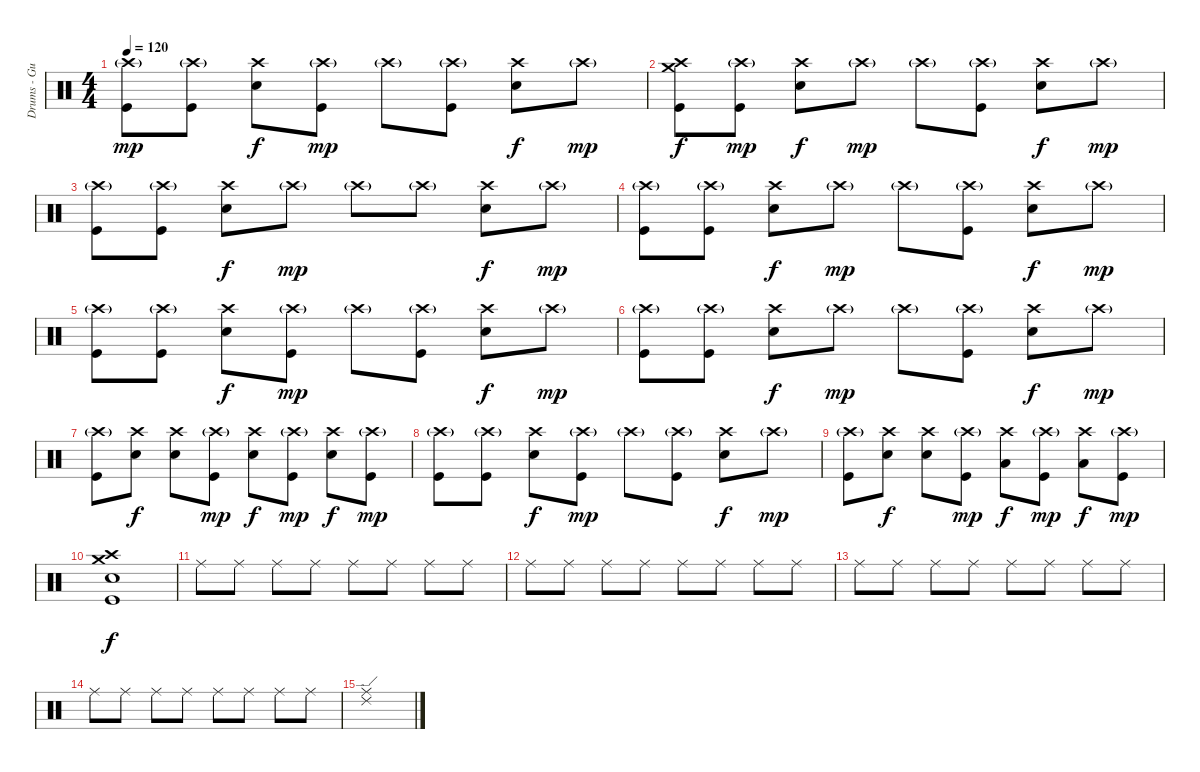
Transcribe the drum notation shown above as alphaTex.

\track ("Drums - Gustav" "Drums - Gu") {instrument percussion}
\staff {score}
\articulation defaults
\ts (4 4)
\tempo 120
\clef neutral
\ks c
("Kick (hit)" "Crash high (hit)"{g}).8{dy mp} ("Kick (hit)" "Crash high (hit)"{g}).8 ("Snare (hit) 2" "Crash high (hit)").8{dy f} ("Kick (hit)" "Crash high (hit)"{g}).8{dy mp} "Crash high (hit)"{g}.8 ("Kick (hit)" "Crash high (hit)"{g}).8 ("Snare (hit) 2" "Crash high (hit)").8{dy f} "Crash high (hit)"{g}.8{dy mp} |
("Kick (hit)" "Crash high (hit)" "Crash medium (hit)").8{dy f} ("Kick (hit)" "Crash high (hit)"{g}).8{dy mp} ("Snare (hit) 2" "Crash high (hit)").8{dy f} "Crash high (hit)"{g}.8{dy mp} "Crash high (hit)"{g}.8 ("Kick (hit)" "Crash high (hit)"{g}).8 ("Snare (hit) 2" "Crash high (hit)").8{dy f} "Crash high (hit)"{g}.8{dy mp} |
("Kick (hit)" "Crash high (hit)"{g}).8 ("Kick (hit)" "Crash high (hit)"{g}).8 ("Snare (hit) 2" "Crash high (hit)").8{dy f} "Crash high (hit)"{g}.8{dy mp} "Crash high (hit)"{g}.8 "Crash high (hit)"{g}.8 ("Snare (hit) 2" "Crash high (hit)").8{dy f} "Crash high (hit)"{g}.8{dy mp} |
("Kick (hit)" "Crash high (hit)"{g}).8 ("Kick (hit)" "Crash high (hit)"{g}).8 ("Snare (hit) 2" "Crash high (hit)").8{dy f} "Crash high (hit)"{g}.8{dy mp} "Crash high (hit)"{g}.8 ("Kick (hit)" "Crash high (hit)"{g}).8 ("Snare (hit) 2" "Crash high (hit)").8{dy f} "Crash high (hit)"{g}.8{dy mp} |
("Kick (hit)" "Crash high (hit)"{g}).8 ("Kick (hit)" "Crash high (hit)"{g}).8 ("Snare (hit) 2" "Crash high (hit)").8{dy f} ("Kick (hit)" "Crash high (hit)"{g}).8{dy mp} "Crash high (hit)"{g}.8 ("Kick (hit)" "Crash high (hit)"{g}).8 ("Snare (hit) 2" "Crash high (hit)").8{dy f} "Crash high (hit)"{g}.8{dy mp} |
("Kick (hit)" "Crash high (hit)"{g}).8 ("Kick (hit)" "Crash high (hit)"{g}).8 ("Snare (hit) 2" "Crash high (hit)").8{dy f} "Crash high (hit)"{g}.8{dy mp} "Crash high (hit)"{g}.8 ("Kick (hit)" "Crash high (hit)"{g}).8 ("Snare (hit) 2" "Crash high (hit)").8{dy f} "Crash high (hit)"{g}.8{dy mp} |
("Kick (hit)" "Crash high (hit)"{g}).8 ("Crash high (hit)" "Snare (hit) 2").8{dy f} ("Crash high (hit)" "Snare (hit) 2").8 ("Kick (hit)" "Crash high (hit)"{g}).8{dy mp} ("Crash high (hit)" "Snare (hit) 2").8{dy f} ("Kick (hit)" "Crash high (hit)"{g}).8{dy mp} ("Crash high (hit)" "Snare (hit) 2").8{dy f} ("Kick (hit)" "Crash high (hit)"{g}).8{dy mp} |
("Kick (hit)" "Crash high (hit)"{g}).8 ("Kick (hit)" "Crash high (hit)"{g}).8 ("Snare (hit) 2" "Crash high (hit)").8{dy f} ("Kick (hit)" "Crash high (hit)"{g}).8{dy mp} "Crash high (hit)"{g}.8 ("Kick (hit)" "Crash high (hit)"{g}).8 ("Snare (hit) 2" "Crash high (hit)").8{dy f} "Crash high (hit)"{g}.8{dy mp} |
("Kick (hit)" "Crash high (hit)"{g}).8 ("Crash high (hit)" "Snare (hit) 2").8{dy f} ("Crash high (hit)" "Snare (hit) 2").8 ("Kick (hit)" "Crash high (hit)"{g}).8{dy mp} ("Crash high (hit)" "Low Tom (hit)").8{dy f} ("Kick (hit)" "Crash high (hit)"{g}).8{dy mp} ("Crash high (hit)" "Low Floor Tom (hit)").8{dy f} ("Kick (hit)" "Crash high (hit)"{g}).8{dy mp} |
("Kick (hit)" "Snare (hit) 2" "Crash high (hit)" "Crash medium (hit)").1{dy f volume 0} |
"Ride (middle)".8{volume 5} "Ride (middle)".8 "Ride (middle)".8 "Ride (middle)".8 "Ride (middle)".8 "Ride (middle)".8 "Ride (middle)".8 "Ride (middle)".8 |
"Ride (middle)".8 "Ride (middle)".8 "Ride (middle)".8 "Ride (middle)".8 "Ride (middle)".8 "Ride (middle)".8 "Ride (middle)".8 "Ride (middle)".8 |
"Ride (middle)".8 "Ride (middle)".8 "Ride (middle)".8 "Ride (middle)".8 "Ride (middle)".8 "Ride (middle)".8 "Ride (middle)".8 "Ride (middle)".8 |
"Ride (middle)".8 "Ride (middle)".8 "Ride (middle)".8 "Ride (middle)".8 "Ride (middle)".8 "Ride (middle)".8 "Ride (middle)".8 "Ride (middle)".8 |
("Ride (middle)" "Ride (edge) 2").1
